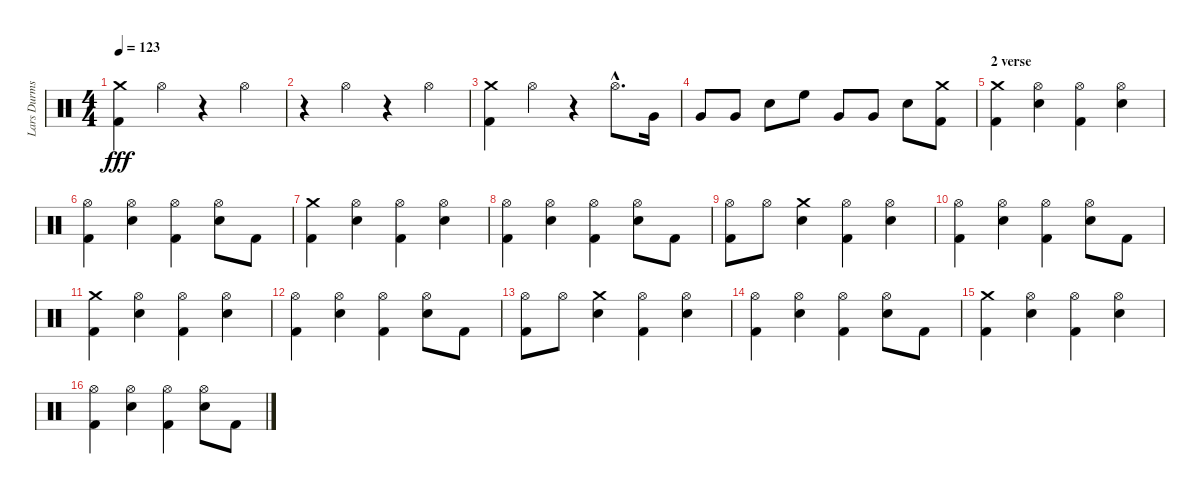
\track ("Lars Durms" "Lars Durms") {instrument percussion}
\staff {score}
\articulation defaults
\ts (4 4)
\tempo 123
\clef neutral
\ks c
("Kick (hit) 2" "Crash medium (hit)").4{dy fff} "Hi-Hat (open)".4 r.4 "Hi-Hat (open)".4 |
r.4 "Hi-Hat (open)".4 r.4 "Hi-Hat (open)".4 |
("Crash medium (hit)" "Kick (hit) 2").4 "Hi-Hat (open)".4 r.4 "Hi-Hat (open)"{hac}.8{d} "Very Low Tom (hit)".16 |
"Very Low Tom (hit)".8 "Very Low Tom (hit)".8 "Snare (hit) 2".8 "High Floor Tom (hit)".8 "Very Low Tom (hit)".8 "Very Low Tom (hit)".8 "Snare (hit) 2".8 ("Crash medium (hit)" "Kick (hit) 2").8 |
\section ("" "2 verse")
("Kick (hit) 2" "Crash medium (hit)").4 ("Hi-Hat (open)" "Snare (hit) 2").4 ("Kick (hit) 2" "Hi-Hat (open)").4 ("Hi-Hat (open)" "Snare (hit) 2").4 |
("Hi-Hat (open)" "Kick (hit) 2").4 ("Hi-Hat (open)" "Snare (hit) 2").4 ("Hi-Hat (open)" "Kick (hit) 2").4 ("Snare (hit) 2" "Hi-Hat (open)").8 "Kick (hit) 2".8 |
("Kick (hit) 2" "Crash medium (hit)").4 ("Hi-Hat (open)" "Snare (hit) 2").4 ("Kick (hit) 2" "Hi-Hat (open)").4 ("Hi-Hat (open)" "Snare (hit) 2").4 |
("Hi-Hat (open)" "Kick (hit) 2").4 ("Hi-Hat (open)" "Snare (hit) 2").4 ("Hi-Hat (open)" "Kick (hit) 2").4 ("Snare (hit) 2" "Hi-Hat (open)").8 "Kick (hit) 2".8 |
("Kick (hit) 2" "Hi-Hat (open)").8 "Hi-Hat (open)".8 ("Crash medium (hit)" "Snare (hit) 2").4 ("Hi-Hat (open)" "Kick (hit) 2").4 ("Snare (hit) 2" "Hi-Hat (open)").4 |
("Hi-Hat (open)" "Kick (hit) 2").4 ("Hi-Hat (open)" "Snare (hit) 2").4 ("Hi-Hat (open)" "Kick (hit) 2").4 ("Snare (hit) 2" "Hi-Hat (open)").8 "Kick (hit) 2".8 |
("Kick (hit) 2" "Crash medium (hit)").4 ("Hi-Hat (open)" "Snare (hit) 2").4 ("Kick (hit) 2" "Hi-Hat (open)").4 ("Hi-Hat (open)" "Snare (hit) 2").4 |
("Hi-Hat (open)" "Kick (hit) 2").4 ("Hi-Hat (open)" "Snare (hit) 2").4 ("Hi-Hat (open)" "Kick (hit) 2").4 ("Snare (hit) 2" "Hi-Hat (open)").8 "Kick (hit) 2".8 |
("Kick (hit) 2" "Hi-Hat (open)").8 "Hi-Hat (open)".8 ("Crash medium (hit)" "Snare (hit) 2").4 ("Hi-Hat (open)" "Kick (hit) 2").4 ("Snare (hit) 2" "Hi-Hat (open)").4 |
("Hi-Hat (open)" "Kick (hit) 2").4 ("Hi-Hat (open)" "Snare (hit) 2").4 ("Hi-Hat (open)" "Kick (hit) 2").4 ("Snare (hit) 2" "Hi-Hat (open)").8 "Kick (hit) 2".8 |
("Kick (hit) 2" "Crash medium (hit)").4 ("Hi-Hat (open)" "Snare (hit) 2").4 ("Kick (hit) 2" "Hi-Hat (open)").4 ("Hi-Hat (open)" "Snare (hit) 2").4 |
("Hi-Hat (open)" "Kick (hit) 2").4 ("Hi-Hat (open)" "Snare (hit) 2").4 ("Hi-Hat (open)" "Kick (hit) 2").4 ("Snare (hit) 2" "Hi-Hat (open)").8 "Kick (hit) 2".8
